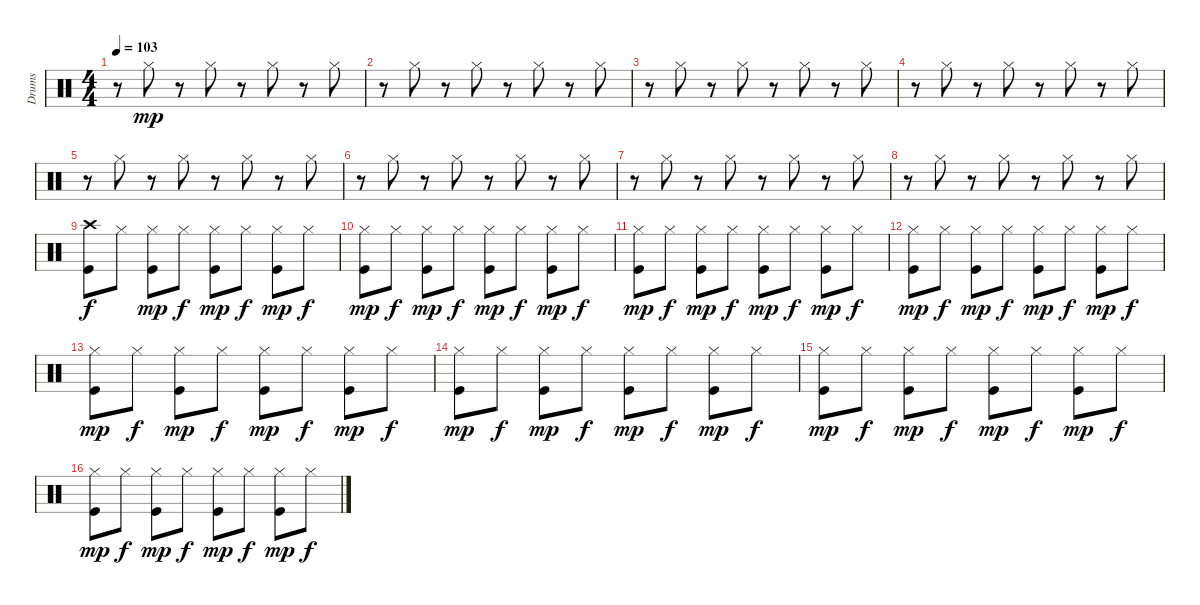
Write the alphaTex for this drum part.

\track ("Drums" "Drums") {instrument percussion}
\staff {score}
\articulation defaults
\ts (4 4)
\tempo 103
\clef neutral
\ks c
r.8{dy mp} "Hi-Hat (closed)".8 r.8 "Hi-Hat (closed)".8 r.8 "Hi-Hat (closed)".8 r.8 "Hi-Hat (closed)".8 |
r.8 "Hi-Hat (closed)".8 r.8 "Hi-Hat (closed)".8 r.8 "Hi-Hat (closed)".8 r.8 "Hi-Hat (closed)".8 |
r.8 "Hi-Hat (closed)".8 r.8 "Hi-Hat (closed)".8 r.8 "Hi-Hat (closed)".8 r.8 "Hi-Hat (closed)".8 |
r.8 "Hi-Hat (closed)".8 r.8 "Hi-Hat (closed)".8 r.8 "Hi-Hat (closed)".8 r.8 "Hi-Hat (closed)".8 |
r.8 "Hi-Hat (closed)".8 r.8 "Hi-Hat (closed)".8 r.8 "Hi-Hat (closed)".8 r.8 "Hi-Hat (closed)".8 |
r.8 "Hi-Hat (closed)".8 r.8 "Hi-Hat (closed)".8 r.8 "Hi-Hat (closed)".8 r.8 "Hi-Hat (closed)".8 |
r.8 "Hi-Hat (closed)".8 r.8 "Hi-Hat (closed)".8 r.8 "Hi-Hat (closed)".8 r.8 "Hi-Hat (closed)".8 |
r.8 "Hi-Hat (closed)".8 r.8 "Hi-Hat (closed)".8 r.8 "Hi-Hat (closed)".8 r.8 "Hi-Hat (closed)".8 |
("Crash high (hit)" "Kick (hit)").8{dy f} "Hi-Hat (closed)".8 ("Hi-Hat (closed)" "Kick (hit)").8{dy mp} "Hi-Hat (closed)".8{dy f} ("Hi-Hat (closed)" "Kick (hit)").8{dy mp} "Hi-Hat (closed)".8{dy f} ("Hi-Hat (closed)" "Kick (hit)").8{dy mp} "Hi-Hat (closed)".8{dy f} |
("Hi-Hat (closed)" "Kick (hit)").8{dy mp} "Hi-Hat (closed)".8{dy f} ("Hi-Hat (closed)" "Kick (hit)").8{dy mp} "Hi-Hat (closed)".8{dy f} ("Hi-Hat (closed)" "Kick (hit)").8{dy mp} "Hi-Hat (closed)".8{dy f} ("Hi-Hat (closed)" "Kick (hit)").8{dy mp} "Hi-Hat (closed)".8{dy f} |
("Hi-Hat (closed)" "Kick (hit)").8{dy mp} "Hi-Hat (closed)".8{dy f} ("Hi-Hat (closed)" "Kick (hit)").8{dy mp} "Hi-Hat (closed)".8{dy f} ("Hi-Hat (closed)" "Kick (hit)").8{dy mp} "Hi-Hat (closed)".8{dy f} ("Hi-Hat (closed)" "Kick (hit)").8{dy mp} "Hi-Hat (closed)".8{dy f} |
("Hi-Hat (closed)" "Kick (hit)").8{dy mp} "Hi-Hat (closed)".8{dy f} ("Hi-Hat (closed)" "Kick (hit)").8{dy mp} "Hi-Hat (closed)".8{dy f} ("Hi-Hat (closed)" "Kick (hit)").8{dy mp} "Hi-Hat (closed)".8{dy f} ("Hi-Hat (closed)" "Kick (hit)").8{dy mp} "Hi-Hat (closed)".8{dy f} |
("Hi-Hat (closed)" "Kick (hit)").8{dy mp} "Hi-Hat (closed)".8{dy f} ("Hi-Hat (closed)" "Kick (hit)").8{dy mp} "Hi-Hat (closed)".8{dy f} ("Hi-Hat (closed)" "Kick (hit)").8{dy mp} "Hi-Hat (closed)".8{dy f} ("Hi-Hat (closed)" "Kick (hit)").8{dy mp} "Hi-Hat (closed)".8{dy f} |
("Hi-Hat (closed)" "Kick (hit)").8{dy mp} "Hi-Hat (closed)".8{dy f} ("Hi-Hat (closed)" "Kick (hit)").8{dy mp} "Hi-Hat (closed)".8{dy f} ("Hi-Hat (closed)" "Kick (hit)").8{dy mp} "Hi-Hat (closed)".8{dy f} ("Hi-Hat (closed)" "Kick (hit)").8{dy mp} "Hi-Hat (closed)".8{dy f} |
("Hi-Hat (closed)" "Kick (hit)").8{dy mp} "Hi-Hat (closed)".8{dy f} ("Hi-Hat (closed)" "Kick (hit)").8{dy mp} "Hi-Hat (closed)".8{dy f} ("Hi-Hat (closed)" "Kick (hit)").8{dy mp} "Hi-Hat (closed)".8{dy f} ("Hi-Hat (closed)" "Kick (hit)").8{dy mp} "Hi-Hat (closed)".8{dy f} |
("Hi-Hat (closed)" "Kick (hit)").8{dy mp} "Hi-Hat (closed)".8{dy f} ("Hi-Hat (closed)" "Kick (hit)").8{dy mp} "Hi-Hat (closed)".8{dy f} ("Hi-Hat (closed)" "Kick (hit)").8{dy mp} "Hi-Hat (closed)".8{dy f} ("Hi-Hat (closed)" "Kick (hit)").8{dy mp} "Hi-Hat (closed)".8{dy f}
